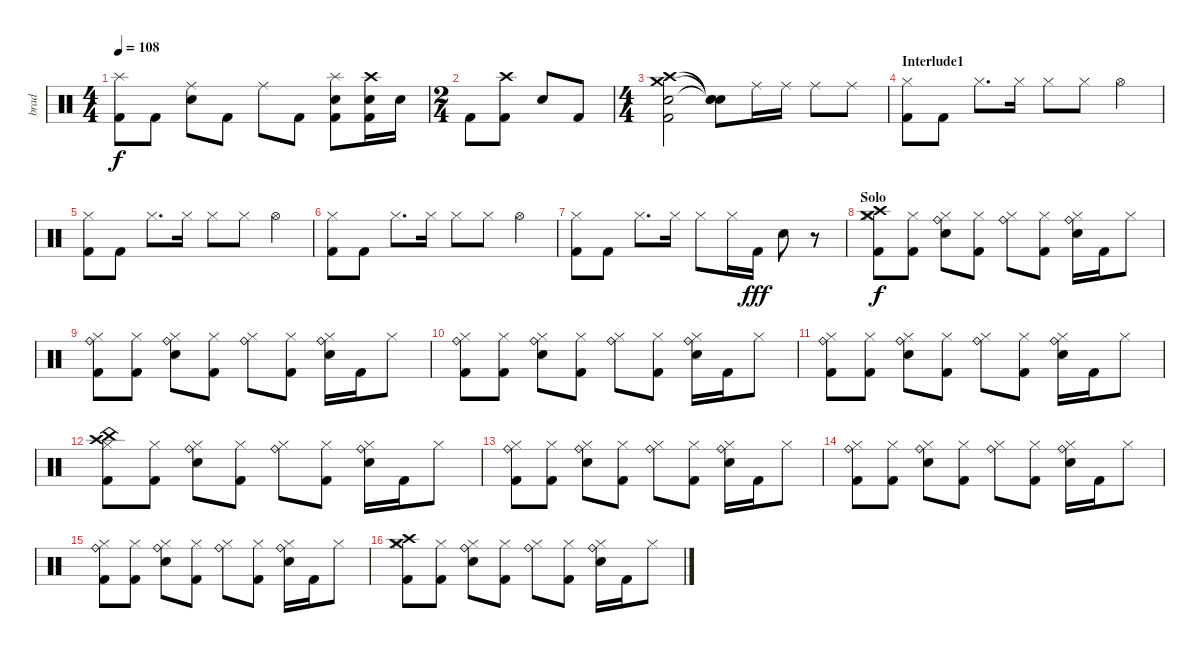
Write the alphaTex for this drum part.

\track ("brad" "brad") {instrument percussion}
\staff {score}
\articulation defaults
\ts (4 4)
\tempo 108
\clef neutral
\ks c
("Splash (hit)" "Kick (hit) 2").8{dy f} "Kick (hit) 2".8 ("Ride (middle)" "Electric Snare (hit)").8 "Kick (hit) 2".8 "Ride (middle)".8 "Kick (hit) 2".8 ("Splash (hit)" "Electric Snare (hit)" "Kick (hit) 2").8 ("Crash high (hit)" "Electric Snare (hit)" "Kick (hit) 2").16 "Electric Snare (hit)".16 |
\ts (2 4)
"Kick (hit) 2".8 ("Crash high (hit)" "Kick (hit) 2").8 "Electric Snare (hit)".8 "Kick (hit) 2".8 |
\ts (4 4)
("Crash medium (hit)" "Crash high (hit)" "Electric Snare (hit)" "Kick (hit) 2").2 ("Snare (hit)"{t} "Snare (hit)"{t} "Snare (hit)"{t}).8 "Ride (middle)".16 "Ride (middle)".16 "Ride (middle)".8 "Ride (middle)".8 |
\section ("" "Interlude1")
("Hi-Hat (closed)" "Kick (hit) 2").8 "Kick (hit) 2".8 "Hi-Hat (closed)".8{d} "Hi-Hat (closed)".16 "Hi-Hat (closed)".8 "Hi-Hat (closed)".8 "Hi-Hat (open)".4 |
("Hi-Hat (closed)" "Kick (hit) 2").8 "Kick (hit) 2".8 "Hi-Hat (closed)".8{d} "Hi-Hat (closed)".16 "Hi-Hat (closed)".8 "Hi-Hat (closed)".8 "Hi-Hat (open)".4 |
("Hi-Hat (closed)" "Kick (hit) 2").8 "Kick (hit) 2".8 "Hi-Hat (closed)".8{d} "Hi-Hat (closed)".16 "Hi-Hat (closed)".8 "Hi-Hat (closed)".8 "Hi-Hat (open)".4 |
("Hi-Hat (closed)" "Kick (hit) 2").8 "Kick (hit) 2".8 "Hi-Hat (closed)".8{d} "Hi-Hat (closed)".16 "Hi-Hat (closed)".8 "Hi-Hat (closed)".16 "Kick (hit) 2".16{dy fff} "Electric Snare (hit)".8 r.8 |
\section ("" "Solo")
("Crash medium (hit)" "Crash high (hit)" "Hi-Hat (closed)" "Kick (hit) 2").8{dy f} ("Hi-Hat (closed)" "Kick (hit) 2").8 ("Ride (bell)" "Hi-Hat (closed)" "Electric Snare (hit)").8 ("Hi-Hat (closed)" "Kick (hit) 2").8 ("Ride (bell)" "Hi-Hat (closed)").8 ("Hi-Hat (closed)" "Kick (hit) 2").8 ("Ride (bell)" "Hi-Hat (closed)" "Electric Snare (hit)").16 "Kick (hit) 2".16 "Hi-Hat (closed)".8 |
("Ride (bell)" "Hi-Hat (closed)" "Kick (hit) 2").8 ("Hi-Hat (closed)" "Kick (hit) 2").8 ("Ride (bell)" "Hi-Hat (closed)" "Electric Snare (hit)").8 ("Hi-Hat (closed)" "Kick (hit) 2").8 ("Ride (bell)" "Hi-Hat (closed)").8 ("Hi-Hat (closed)" "Kick (hit) 2").8 ("Ride (bell)" "Hi-Hat (closed)" "Electric Snare (hit)").16 "Kick (hit) 2".16 "Hi-Hat (closed)".8 |
("Ride (bell)" "Hi-Hat (closed)" "Kick (hit) 2").8 ("Hi-Hat (closed)" "Kick (hit) 2").8 ("Ride (bell)" "Hi-Hat (closed)" "Electric Snare (hit)").8 ("Hi-Hat (closed)" "Kick (hit) 2").8 ("Ride (bell)" "Hi-Hat (closed)").8 ("Hi-Hat (closed)" "Kick (hit) 2").8 ("Ride (bell)" "Hi-Hat (closed)" "Electric Snare (hit)").16 "Kick (hit) 2".16 "Hi-Hat (closed)".8 |
("Ride (bell)" "Hi-Hat (closed)" "Kick (hit) 2").8 ("Hi-Hat (closed)" "Kick (hit) 2").8 ("Ride (bell)" "Hi-Hat (closed)" "Electric Snare (hit)").8 ("Hi-Hat (closed)" "Kick (hit) 2").8 ("Ride (bell)" "Hi-Hat (closed)").8 ("Hi-Hat (closed)" "Kick (hit) 2").8 ("Ride (bell)" "Hi-Hat (closed)" "Electric Snare (hit)").16 "Kick (hit) 2".16 "Hi-Hat (closed)".8 |
("China (hit)" "Crash high (hit)" "Hi-Hat (closed)" "Kick (hit) 2").8 ("Hi-Hat (closed)" "Kick (hit) 2").8 ("Ride (bell)" "Hi-Hat (closed)" "Electric Snare (hit)").8 ("Hi-Hat (closed)" "Kick (hit) 2").8 ("Ride (bell)" "Hi-Hat (closed)").8 ("Hi-Hat (closed)" "Kick (hit) 2").8 ("Ride (bell)" "Hi-Hat (closed)" "Electric Snare (hit)").16 "Kick (hit) 2".16 "Hi-Hat (closed)".8 |
("Ride (bell)" "Hi-Hat (closed)" "Kick (hit) 2").8 ("Hi-Hat (closed)" "Kick (hit) 2").8 ("Ride (bell)" "Hi-Hat (closed)" "Electric Snare (hit)").8 ("Hi-Hat (closed)" "Kick (hit) 2").8 ("Ride (bell)" "Hi-Hat (closed)").8 ("Hi-Hat (closed)" "Kick (hit) 2").8 ("Ride (bell)" "Hi-Hat (closed)" "Electric Snare (hit)").16 "Kick (hit) 2".16 "Hi-Hat (closed)".8 |
("Ride (bell)" "Hi-Hat (closed)" "Kick (hit) 2").8 ("Hi-Hat (closed)" "Kick (hit) 2").8 ("Ride (bell)" "Hi-Hat (closed)" "Electric Snare (hit)").8 ("Hi-Hat (closed)" "Kick (hit) 2").8 ("Ride (bell)" "Hi-Hat (closed)").8 ("Hi-Hat (closed)" "Kick (hit) 2").8 ("Ride (bell)" "Hi-Hat (closed)" "Electric Snare (hit)").16 "Kick (hit) 2".16 "Hi-Hat (closed)".8 |
("Ride (bell)" "Hi-Hat (closed)" "Kick (hit) 2").8 ("Hi-Hat (closed)" "Kick (hit) 2").8 ("Ride (bell)" "Hi-Hat (closed)" "Electric Snare (hit)").8 ("Hi-Hat (closed)" "Kick (hit) 2").8 ("Ride (bell)" "Hi-Hat (closed)").8 ("Hi-Hat (closed)" "Kick (hit) 2").8 ("Ride (bell)" "Hi-Hat (closed)" "Electric Snare (hit)").16 "Kick (hit) 2".16 "Hi-Hat (closed)".8 |
("Crash medium (hit)" "Crash high (hit)" "Hi-Hat (closed)" "Kick (hit) 2").8 ("Hi-Hat (closed)" "Kick (hit) 2").8 ("Ride (bell)" "Hi-Hat (closed)" "Electric Snare (hit)").8 ("Hi-Hat (closed)" "Kick (hit) 2").8 ("Ride (bell)" "Hi-Hat (closed)").8 ("Hi-Hat (closed)" "Kick (hit) 2").8 ("Ride (bell)" "Hi-Hat (closed)" "Electric Snare (hit)").16 "Kick (hit) 2".16 "Hi-Hat (closed)".8
